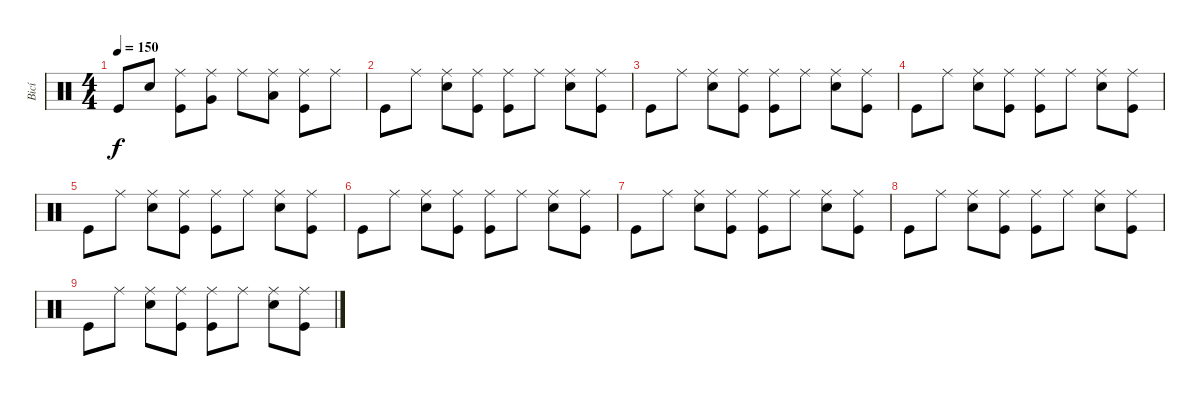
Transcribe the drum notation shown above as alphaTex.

\track ("Bicí" "Bicí") {instrument percussion}
\staff {score}
\articulation defaults
\ts (4 4)
\tempo 150
\clef neutral
\ks c "Kick (hit)".8{dy f} "Snare (hit) 2".8
("Ride (middle)" "Kick (hit)").8 ("Very Low Tom (hit)" "Ride (middle)").8 "Ride (middle)".8 ("Low Floor Tom (hit)" "Ride (middle)").8 ("Ride (middle)" "Kick (hit)").8 "Ride (middle)".8 |
"Kick (hit)".8 "Ride (middle)".8 ("Ride (middle)" "Snare (hit) 2").8 ("Ride (middle)" "Kick (hit)").8 ("Ride (middle)" "Kick (hit)").8 "Ride (middle)".8 ("Ride (middle)" "Snare (hit) 2").8 ("Ride (middle)" "Kick (hit)").8 |
"Kick (hit)".8 "Ride (middle)".8 ("Ride (middle)" "Snare (hit) 2").8 ("Ride (middle)" "Kick (hit)").8 ("Ride (middle)" "Kick (hit)").8 "Ride (middle)".8 ("Ride (middle)" "Snare (hit) 2").8 ("Ride (middle)" "Kick (hit)").8 |
"Kick (hit)".8 "Ride (middle)".8 ("Ride (middle)" "Snare (hit) 2").8 ("Ride (middle)" "Kick (hit)").8 ("Ride (middle)" "Kick (hit)").8 "Ride (middle)".8 ("Ride (middle)" "Snare (hit) 2").8 ("Ride (middle)" "Kick (hit)").8 |
"Kick (hit)".8 "Ride (middle)".8 ("Ride (middle)" "Snare (hit) 2").8 ("Ride (middle)" "Kick (hit)").8 ("Ride (middle)" "Kick (hit)").8 "Ride (middle)".8 ("Ride (middle)" "Snare (hit) 2").8 ("Ride (middle)" "Kick (hit)").8 |
"Kick (hit)".8 "Ride (middle)".8 ("Ride (middle)" "Snare (hit) 2").8 ("Ride (middle)" "Kick (hit)").8 ("Ride (middle)" "Kick (hit)").8 "Ride (middle)".8 ("Ride (middle)" "Snare (hit) 2").8 ("Ride (middle)" "Kick (hit)").8 |
"Kick (hit)".8 "Ride (middle)".8 ("Ride (middle)" "Snare (hit) 2").8 ("Ride (middle)" "Kick (hit)").8 ("Ride (middle)" "Kick (hit)").8 "Ride (middle)".8 ("Ride (middle)" "Snare (hit) 2").8 ("Ride (middle)" "Kick (hit)").8 |
"Kick (hit)".8 "Ride (middle)".8 ("Ride (middle)" "Snare (hit) 2").8 ("Ride (middle)" "Kick (hit)").8 ("Ride (middle)" "Kick (hit)").8 "Ride (middle)".8 ("Ride (middle)" "Snare (hit) 2").8 ("Ride (middle)" "Kick (hit)").8 |
"Kick (hit)".8 "Ride (middle)".8 ("Ride (middle)" "Snare (hit) 2").8 ("Ride (middle)" "Kick (hit)").8 ("Ride (middle)" "Kick (hit)").8 "Ride (middle)".8 ("Ride (middle)" "Snare (hit) 2").8 ("Ride (middle)" "Kick (hit)").8
